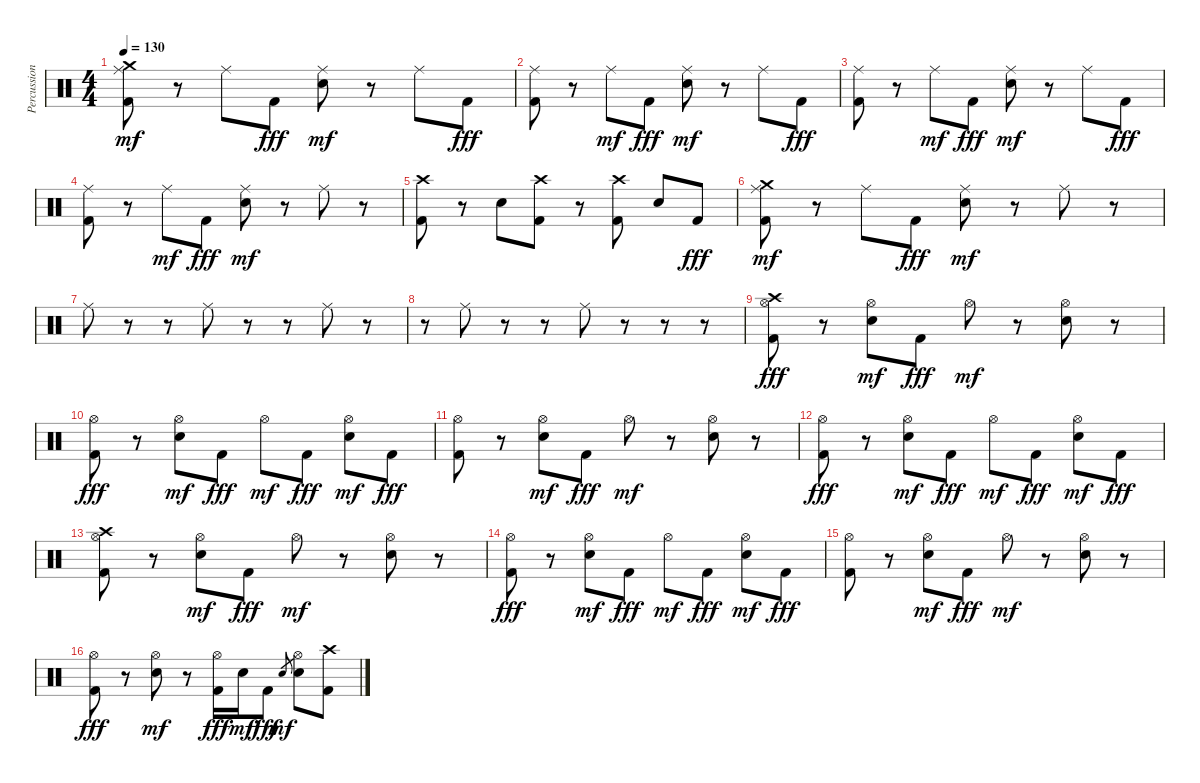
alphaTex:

\track ("Percussion" "Percussion") {instrument percussion}
\staff {score}
\articulation defaults
\ts (4 4)
\tempo 130
\clef neutral
\ks c
("Ride (middle)" "Kick (hit) 2" "Crash medium (hit)").8{dy mf} r.8 "Ride (middle)".8 "Kick (hit) 2".8{dy fff} ("Ride (middle)" "Electric Snare (hit)").8{dy mf} r.8 "Ride (middle)".8 "Kick (hit) 2".8{dy fff} |
("Ride (middle)" "Kick (hit) 2").8 r.8 "Ride (middle)".8{dy mf} "Kick (hit) 2".8{dy fff} ("Ride (middle)" "Electric Snare (hit)").8{dy mf} r.8 "Ride (middle)".8 "Kick (hit) 2".8{dy fff} |
("Ride (middle)" "Kick (hit) 2").8 r.8 "Ride (middle)".8{dy mf} "Kick (hit) 2".8{dy fff} ("Ride (middle)" "Electric Snare (hit)").8{dy mf} r.8 "Ride (middle)".8 "Kick (hit) 2".8{dy fff} |
("Ride (middle)" "Kick (hit) 2").8 r.8 "Ride (middle)".8{dy mf} "Kick (hit) 2".8{dy fff} ("Ride (middle)" "Electric Snare (hit)").8{dy mf} r.8 "Ride (middle)".8 r.8 |
("Kick (hit) 2" "Crash high (hit)").8 r.8 "Electric Snare (hit)".8 ("Kick (hit) 2" "Crash high (hit)").8 r.8 ("Kick (hit) 2" "Crash high (hit)").8 "Electric Snare (hit)".8 "Kick (hit) 2".8{dy fff} |
("Ride (middle)" "Kick (hit) 2" "Crash medium (hit)").8{dy mf} r.8 "Ride (middle)".8 "Kick (hit) 2".8{dy fff} ("Ride (middle)" "Electric Snare (hit)").8{dy mf} r.8 "Ride (middle)".8 r.8 |
"Ride (middle)".8 r.8 r.8 "Ride (middle)".8 r.8 r.8 "Ride (middle)".8 r.8 |
r.8 "Ride (middle)".8 r.8 r.8 "Ride (middle)".8 r.8 r.8 r.8 |
("Hi-Hat (open)" "Kick (hit) 2" "Crash high (hit)").8{dy fff} r.8 ("Hi-Hat (open)" "Electric Snare (hit)").8{dy mf} "Kick (hit) 2".8{dy fff} "Hi-Hat (open)".8{dy mf} r.8 ("Hi-Hat (open)" "Electric Snare (hit)").8 r.8 |
("Hi-Hat (open)" "Kick (hit) 2").8{dy fff} r.8 ("Hi-Hat (open)" "Electric Snare (hit)").8{dy mf} "Kick (hit) 2".8{dy fff} "Hi-Hat (open)".8{dy mf} "Kick (hit) 2".8{dy fff} ("Hi-Hat (open)" "Electric Snare (hit)").8{dy mf} "Kick (hit) 2".8{dy fff} |
("Hi-Hat (open)" "Kick (hit) 2").8 r.8 ("Hi-Hat (open)" "Electric Snare (hit)").8{dy mf} "Kick (hit) 2".8{dy fff} "Hi-Hat (open)".8{dy mf} r.8 ("Hi-Hat (open)" "Electric Snare (hit)").8 r.8 |
("Hi-Hat (open)" "Kick (hit) 2").8{dy fff} r.8 ("Hi-Hat (open)" "Electric Snare (hit)").8{dy mf} "Kick (hit) 2".8{dy fff} "Hi-Hat (open)".8{dy mf} "Kick (hit) 2".8{dy fff} ("Hi-Hat (open)" "Electric Snare (hit)").8{dy mf} "Kick (hit) 2".8{dy fff} |
("Hi-Hat (open)" "Kick (hit) 2" "Crash high (hit)").8 r.8 ("Hi-Hat (open)" "Electric Snare (hit)").8{dy mf} "Kick (hit) 2".8{dy fff} "Hi-Hat (open)".8{dy mf} r.8 ("Hi-Hat (open)" "Electric Snare (hit)").8 r.8 |
("Hi-Hat (open)" "Kick (hit) 2").8{dy fff} r.8 ("Hi-Hat (open)" "Electric Snare (hit)").8{dy mf} "Kick (hit) 2".8{dy fff} "Hi-Hat (open)".8{dy mf} "Kick (hit) 2".8{dy fff} ("Hi-Hat (open)" "Electric Snare (hit)").8{dy mf} "Kick (hit) 2".8{dy fff} |
("Hi-Hat (open)" "Kick (hit) 2").8 r.8 ("Hi-Hat (open)" "Electric Snare (hit)").8{dy mf} "Kick (hit) 2".8{dy fff} "Hi-Hat (open)".8{dy mf} r.8 ("Hi-Hat (open)" "Electric Snare (hit)").8 r.8 |
("Hi-Hat (open)" "Kick (hit) 2").8{dy fff} r.8 ("Hi-Hat (open)" "Electric Snare (hit)").8{dy mf} r.8 ("Hi-Hat (open)" "Kick (hit) 2").16{dy fff} "Electric Snare (hit)".16{dy mf} "Kick (hit) 2".8{dy fff} "Electric Snare (hit)".8{gr dy mf} ("Hi-Hat (open)" "Electric Snare (hit)").8 ("Kick (hit) 2" "Crash high (hit)").8
